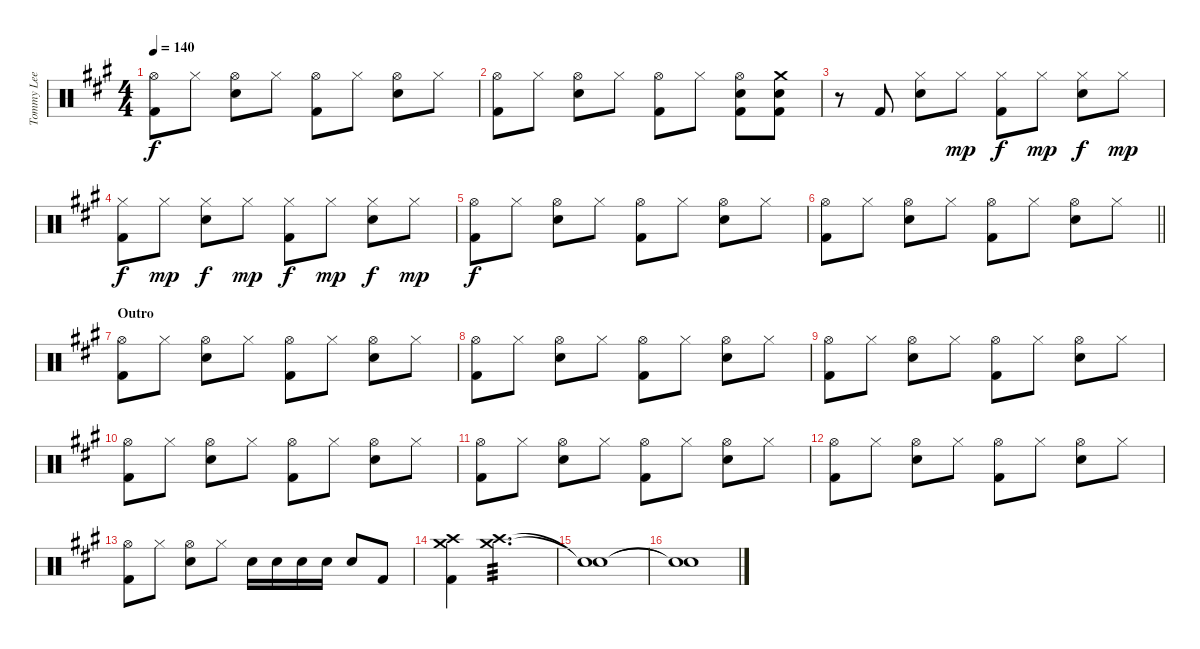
\track ("Tommy Lee - Drums" "Tommy Lee ") {instrument percussion}
\staff {score}
\articulation defaults
\ts (4 4)
\tempo 140
\clef neutral
\ks a
("Hi-Hat (open)" "Kick (hit) 2").8{dy f} "Hi-Hat (closed)".8 ("Hi-Hat (open)" "Snare (hit) 2").8 "Hi-Hat (closed)".8 ("Hi-Hat (open)" "Kick (hit) 2").8 "Hi-Hat (closed)".8 ("Hi-Hat (open)" "Snare (hit) 2").8 "Hi-Hat (closed)".8 |
("Hi-Hat (open)" "Kick (hit) 2").8 "Hi-Hat (closed)".8 ("Hi-Hat (open)" "Snare (hit) 2").8 "Hi-Hat (closed)".8 ("Hi-Hat (open)" "Kick (hit) 2").8 "Hi-Hat (closed)".8 ("Hi-Hat (open)" "Snare (hit) 2" "Kick (hit) 2").8 ("Crash medium (hit)" "Snare (hit) 2" "Kick (hit) 2").8 |
r.8 "Kick (hit) 2".8 ("Hi-Hat (closed)" "Snare (hit) 2").8 "Hi-Hat (closed)".8{dy mp} ("Hi-Hat (closed)" "Kick (hit) 2").8{dy f} "Hi-Hat (closed)".8{dy mp} ("Hi-Hat (closed)" "Snare (hit) 2").8{dy f} "Hi-Hat (closed)".8{dy mp} |
("Hi-Hat (closed)" "Kick (hit) 2").8{dy f} "Hi-Hat (closed)".8{dy mp} ("Hi-Hat (closed)" "Snare (hit) 2").8{dy f} "Hi-Hat (closed)".8{dy mp} ("Hi-Hat (closed)" "Kick (hit) 2").8{dy f} "Hi-Hat (closed)".8{dy mp} ("Hi-Hat (closed)" "Snare (hit) 2").8{dy f} "Hi-Hat (closed)".8{dy mp} |
("Hi-Hat (open)" "Kick (hit) 2").8{dy f} "Hi-Hat (closed)".8 ("Hi-Hat (open)" "Snare (hit) 2").8 "Hi-Hat (closed)".8 ("Hi-Hat (open)" "Kick (hit) 2").8 "Hi-Hat (closed)".8 ("Hi-Hat (open)" "Snare (hit) 2").8 "Hi-Hat (closed)".8 |
\barLineRight lightlight
("Hi-Hat (open)" "Kick (hit) 2").8 "Hi-Hat (closed)".8 ("Hi-Hat (open)" "Snare (hit) 2").8 "Hi-Hat (closed)".8 ("Hi-Hat (open)" "Kick (hit) 2").8 "Hi-Hat (closed)".8 ("Hi-Hat (open)" "Snare (hit) 2").8 "Hi-Hat (closed)".8 |
\section ("" "Outro")
("Hi-Hat (open)" "Kick (hit) 2").8 "Hi-Hat (closed)".8 ("Hi-Hat (open)" "Snare (hit) 2").8 "Hi-Hat (closed)".8 ("Hi-Hat (open)" "Kick (hit) 2").8 "Hi-Hat (closed)".8 ("Hi-Hat (open)" "Snare (hit) 2").8 "Hi-Hat (closed)".8 |
("Hi-Hat (open)" "Kick (hit) 2").8 "Hi-Hat (closed)".8 ("Hi-Hat (open)" "Snare (hit) 2").8 "Hi-Hat (closed)".8 ("Hi-Hat (open)" "Kick (hit) 2").8 "Hi-Hat (closed)".8 ("Hi-Hat (open)" "Snare (hit) 2").8 "Hi-Hat (closed)".8 |
("Hi-Hat (open)" "Kick (hit) 2").8 "Hi-Hat (closed)".8 ("Hi-Hat (open)" "Snare (hit) 2").8 "Hi-Hat (closed)".8 ("Hi-Hat (open)" "Kick (hit) 2").8 "Hi-Hat (closed)".8 ("Hi-Hat (open)" "Snare (hit) 2").8 "Hi-Hat (closed)".8 |
("Hi-Hat (open)" "Kick (hit) 2").8 "Hi-Hat (closed)".8 ("Hi-Hat (open)" "Snare (hit) 2").8 "Hi-Hat (closed)".8 ("Hi-Hat (open)" "Kick (hit) 2").8 "Hi-Hat (closed)".8 ("Hi-Hat (open)" "Snare (hit) 2").8 "Hi-Hat (closed)".8 |
("Hi-Hat (open)" "Kick (hit) 2").8 "Hi-Hat (closed)".8 ("Hi-Hat (open)" "Snare (hit) 2").8 "Hi-Hat (closed)".8 ("Hi-Hat (open)" "Kick (hit) 2").8 "Hi-Hat (closed)".8 ("Hi-Hat (open)" "Snare (hit) 2").8 "Hi-Hat (closed)".8 |
("Hi-Hat (open)" "Kick (hit) 2").8 "Hi-Hat (closed)".8 ("Hi-Hat (open)" "Snare (hit) 2").8 "Hi-Hat (closed)".8 ("Hi-Hat (open)" "Kick (hit) 2").8 "Hi-Hat (closed)".8 ("Hi-Hat (open)" "Snare (hit) 2").8 "Hi-Hat (closed)".8 |
("Hi-Hat (open)" "Kick (hit) 2").8 "Hi-Hat (closed)".8 ("Hi-Hat (open)" "Snare (hit) 2").8 "Hi-Hat (closed)".8 "Snare (hit) 2".16 "Snare (hit) 2".16 "Snare (hit) 2".16 "Snare (hit) 2".16 "Snare (hit) 2".8 "Kick (hit) 2".8 |
("Crash medium (hit)" "Crash high (hit)" "Kick (hit) 2").4 ("Crash medium (hit)" "Crash high (hit)").2{d tp 3} |
("Snare (hit)"{t} "Snare (hit)"{t}).1 |
("Snare (hit)"{t} "Snare (hit)"{t}).1
